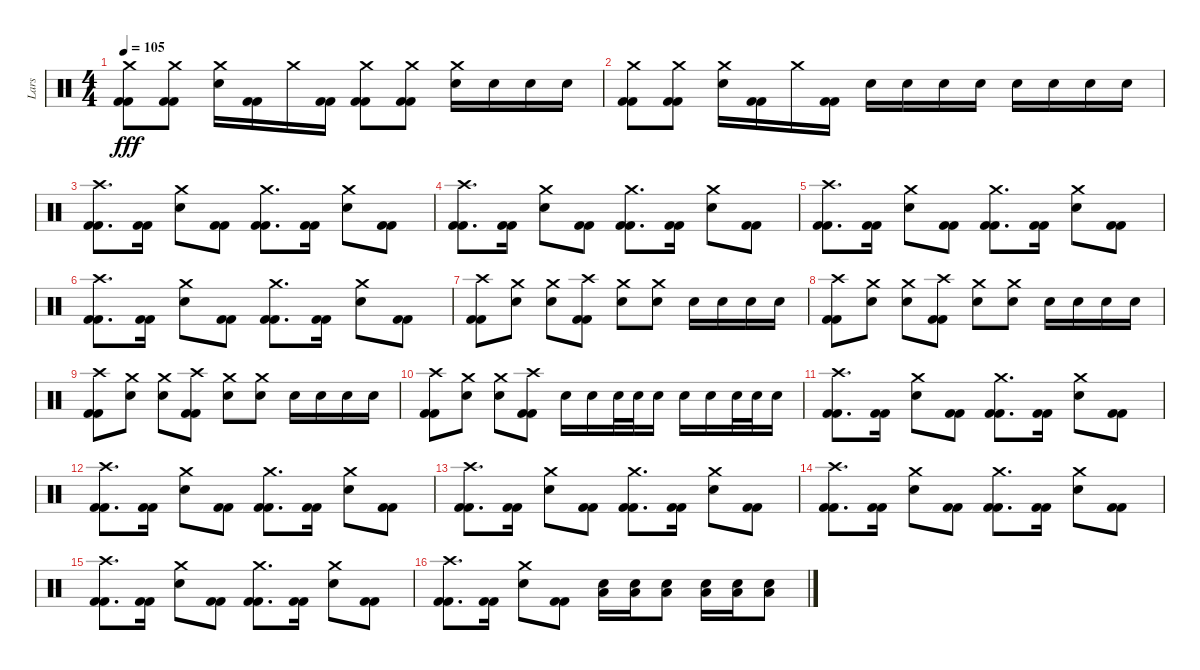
\track ("Lars" "Lars") {instrument percussion}
\staff {score}
\articulation defaults
\ts (4 4)
\tempo 105
\clef neutral
\ks c
("Crash medium (hit)" "Kick (hit) 2" "Kick (hit) 2").8{dy fff} ("Crash medium (hit)" "Kick (hit) 2" "Kick (hit) 2").8 ("Crash medium (hit)" "Electric Snare (hit)").16 ("Kick (hit) 2" "Kick (hit) 2").16 "Crash medium (hit)".16 ("Kick (hit) 2" "Kick (hit) 2").16 ("Crash medium (hit)" "Kick (hit) 2" "Kick (hit) 2").8 ("Crash medium (hit)" "Kick (hit) 2" "Kick (hit) 2").8 ("Crash medium (hit)" "Electric Snare (hit)").16 "Electric Snare (hit)".16 "Electric Snare (hit)".16 "Electric Snare (hit)".16 |
("Crash medium (hit)" "Kick (hit) 2" "Kick (hit) 2").8 ("Crash medium (hit)" "Kick (hit) 2" "Kick (hit) 2").8 ("Crash medium (hit)" "Electric Snare (hit)").16 ("Kick (hit) 2" "Kick (hit) 2").16 "Crash medium (hit)".16 ("Kick (hit) 2" "Kick (hit) 2").16 "Electric Snare (hit)".16 "Electric Snare (hit)".16 "Electric Snare (hit)".16 "Electric Snare (hit)".16 "Electric Snare (hit)".16 "Electric Snare (hit)".16 "Electric Snare (hit)".16 "Electric Snare (hit)".16 |
("Crash high (hit)" "Kick (hit) 2" "Kick (hit) 2").8{d} ("Kick (hit) 2" "Kick (hit) 2").16 ("Crash medium (hit)" "Electric Snare (hit)").8 ("Kick (hit) 2" "Kick (hit) 2").8 ("Crash medium (hit)" "Kick (hit) 2" "Kick (hit) 2").8{d} ("Kick (hit) 2" "Kick (hit) 2").16 ("Crash medium (hit)" "Electric Snare (hit)").8 ("Kick (hit) 2" "Kick (hit) 2").8 |
("Crash high (hit)" "Kick (hit) 2" "Kick (hit) 2").8{d} ("Kick (hit) 2" "Kick (hit) 2").16 ("Crash medium (hit)" "Electric Snare (hit)").8 ("Kick (hit) 2" "Kick (hit) 2").8 ("Crash medium (hit)" "Kick (hit) 2" "Kick (hit) 2").8{d} ("Kick (hit) 2" "Kick (hit) 2").16 ("Crash medium (hit)" "Electric Snare (hit)").8 ("Kick (hit) 2" "Kick (hit) 2").8 |
("Crash high (hit)" "Kick (hit) 2" "Kick (hit) 2").8{d} ("Kick (hit) 2" "Kick (hit) 2").16 ("Crash medium (hit)" "Electric Snare (hit)").8 ("Kick (hit) 2" "Kick (hit) 2").8 ("Crash medium (hit)" "Kick (hit) 2" "Kick (hit) 2").8{d} ("Kick (hit) 2" "Kick (hit) 2").16 ("Crash medium (hit)" "Electric Snare (hit)").8 ("Kick (hit) 2" "Kick (hit) 2").8 |
("Crash high (hit)" "Kick (hit) 2" "Kick (hit) 2").8{d} ("Kick (hit) 2" "Kick (hit) 2").16 ("Crash medium (hit)" "Electric Snare (hit)").8 ("Kick (hit) 2" "Kick (hit) 2").8 ("Crash medium (hit)" "Kick (hit) 2" "Kick (hit) 2").8{d} ("Kick (hit) 2" "Kick (hit) 2").16 ("Crash medium (hit)" "Electric Snare (hit)").8 ("Kick (hit) 2" "Kick (hit) 2").8 |
("Crash high (hit)" "Kick (hit) 2" "Kick (hit) 2").8 ("Crash medium (hit)" "Electric Snare (hit)").8 ("Crash medium (hit)" "Electric Snare (hit)").8 ("Crash high (hit)" "Kick (hit) 2" "Kick (hit) 2").8 ("Crash medium (hit)" "Electric Snare (hit)").8 ("Crash medium (hit)" "Electric Snare (hit)").8 "Electric Snare (hit)".16 "Electric Snare (hit)".16 "Electric Snare (hit)".16 "Electric Snare (hit)".16 |
("Crash high (hit)" "Kick (hit) 2" "Kick (hit) 2").8 ("Crash medium (hit)" "Electric Snare (hit)").8 ("Crash medium (hit)" "Electric Snare (hit)").8 ("Crash high (hit)" "Kick (hit) 2" "Kick (hit) 2").8 ("Crash medium (hit)" "Electric Snare (hit)").8 ("Crash medium (hit)" "Electric Snare (hit)").8 "Electric Snare (hit)".16 "Electric Snare (hit)".16 "Electric Snare (hit)".16 "Electric Snare (hit)".16 |
("Crash high (hit)" "Kick (hit) 2" "Kick (hit) 2").8 ("Crash medium (hit)" "Electric Snare (hit)").8 ("Crash medium (hit)" "Electric Snare (hit)").8 ("Crash high (hit)" "Kick (hit) 2" "Kick (hit) 2").8 ("Crash medium (hit)" "Electric Snare (hit)").8 ("Crash medium (hit)" "Electric Snare (hit)").8 "Electric Snare (hit)".16 "Electric Snare (hit)".16 "Electric Snare (hit)".16 "Electric Snare (hit)".16 |
("Crash high (hit)" "Kick (hit) 2" "Kick (hit) 2").8 ("Crash medium (hit)" "Electric Snare (hit)").8 ("Crash medium (hit)" "Electric Snare (hit)").8 ("Crash high (hit)" "Kick (hit) 2" "Kick (hit) 2").8 "Electric Snare (hit)".16 "Electric Snare (hit)".16 "Electric Snare (hit)".32 "Electric Snare (hit)".32 "Electric Snare (hit)".16 "Electric Snare (hit)".16 "Electric Snare (hit)".16 "Electric Snare (hit)".32 "Electric Snare (hit)".32 "Electric Snare (hit)".16 |
("Crash high (hit)" "Kick (hit) 2" "Kick (hit) 2").8{d} ("Kick (hit) 2" "Kick (hit) 2").16 ("Crash medium (hit)" "Electric Snare (hit)").8 ("Kick (hit) 2" "Kick (hit) 2").8 ("Crash medium (hit)" "Kick (hit) 2" "Kick (hit) 2").8{d} ("Kick (hit) 2" "Kick (hit) 2").16 ("Crash medium (hit)" "Electric Snare (hit)").8 ("Kick (hit) 2" "Kick (hit) 2").8 |
("Crash high (hit)" "Kick (hit) 2" "Kick (hit) 2").8{d} ("Kick (hit) 2" "Kick (hit) 2").16 ("Crash medium (hit)" "Electric Snare (hit)").8 ("Kick (hit) 2" "Kick (hit) 2").8 ("Crash medium (hit)" "Kick (hit) 2" "Kick (hit) 2").8{d} ("Kick (hit) 2" "Kick (hit) 2").16 ("Crash medium (hit)" "Electric Snare (hit)").8 ("Kick (hit) 2" "Kick (hit) 2").8 |
("Crash high (hit)" "Kick (hit) 2" "Kick (hit) 2").8{d} ("Kick (hit) 2" "Kick (hit) 2").16 ("Crash medium (hit)" "Electric Snare (hit)").8 ("Kick (hit) 2" "Kick (hit) 2").8 ("Crash medium (hit)" "Kick (hit) 2" "Kick (hit) 2").8{d} ("Kick (hit) 2" "Kick (hit) 2").16 ("Crash medium (hit)" "Electric Snare (hit)").8 ("Kick (hit) 2" "Kick (hit) 2").8 |
("Crash high (hit)" "Kick (hit) 2" "Kick (hit) 2").8{d} ("Kick (hit) 2" "Kick (hit) 2").16 ("Crash medium (hit)" "Electric Snare (hit)").8 ("Kick (hit) 2" "Kick (hit) 2").8 ("Crash medium (hit)" "Kick (hit) 2" "Kick (hit) 2").8{d} ("Kick (hit) 2" "Kick (hit) 2").16 ("Crash medium (hit)" "Electric Snare (hit)").8 ("Kick (hit) 2" "Kick (hit) 2").8 |
("Crash high (hit)" "Kick (hit) 2" "Kick (hit) 2").8{d} ("Kick (hit) 2" "Kick (hit) 2").16 ("Crash medium (hit)" "Electric Snare (hit)").8 ("Kick (hit) 2" "Kick (hit) 2").8 ("Crash medium (hit)" "Kick (hit) 2" "Kick (hit) 2").8{d} ("Kick (hit) 2" "Kick (hit) 2").16 ("Crash medium (hit)" "Electric Snare (hit)").8 ("Kick (hit) 2" "Kick (hit) 2").8 |
("Crash high (hit)" "Kick (hit) 2" "Kick (hit) 2").8{d} ("Kick (hit) 2" "Kick (hit) 2").16 ("Crash medium (hit)" "Electric Snare (hit)").8 ("Kick (hit) 2" "Kick (hit) 2").8 ("Electric Snare (hit)" "Low Floor Tom (hit)").16 ("Electric Snare (hit)" "Low Floor Tom (hit)").16 ("Electric Snare (hit)" "Low Floor Tom (hit)").8 ("Electric Snare (hit)" "Low Floor Tom (hit)").16 ("Electric Snare (hit)" "Low Floor Tom (hit)").16 ("Electric Snare (hit)" "Low Floor Tom (hit)").8
